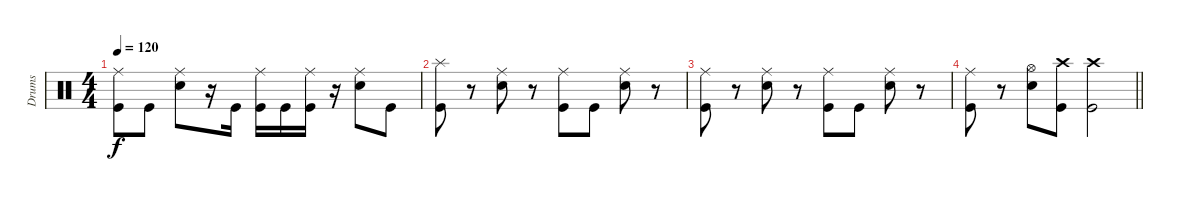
\track ("Drums" "Drums") {instrument percussion}
\staff {score}
\articulation defaults
\ts (4 4)
\tempo 120
\clef neutral
\ks c
("Kick (hit)" "Ride (middle)").8{dy f} "Kick (hit)".8 ("Snare (hit) 2" "Ride (middle)").8 r.16 "Kick (hit)".16 ("Kick (hit)" "Ride (middle)").16 "Kick (hit)".16 ("Kick (hit)" "Ride (middle)").16 r.16 ("Snare (hit) 2" "Ride (middle)").8 "Kick (hit)".8 |
("Kick (hit)" "Splash (hit)").8 r.8 ("Snare (hit) 2" "Ride (middle)").8 r.8 ("Kick (hit)" "Ride (middle)").8 "Kick (hit)".8 ("Snare (hit) 2" "Ride (middle)").8 r.8 |
("Kick (hit)" "Ride (middle)").8 r.8 ("Snare (hit) 2" "Ride (middle)").8 r.8 ("Kick (hit)" "Ride (middle)").8 "Kick (hit)".8 ("Snare (hit) 2" "Ride (middle)").8 r.8 |
\barLineRight lightlight
("Kick (hit)" "Ride (middle)").8 r.8 ("Snare (hit) 2" "Hi-Hat (open)").8 ("Kick (hit)" "Crash high (hit)").8 ("Kick (hit)" "Crash high (hit)").2
